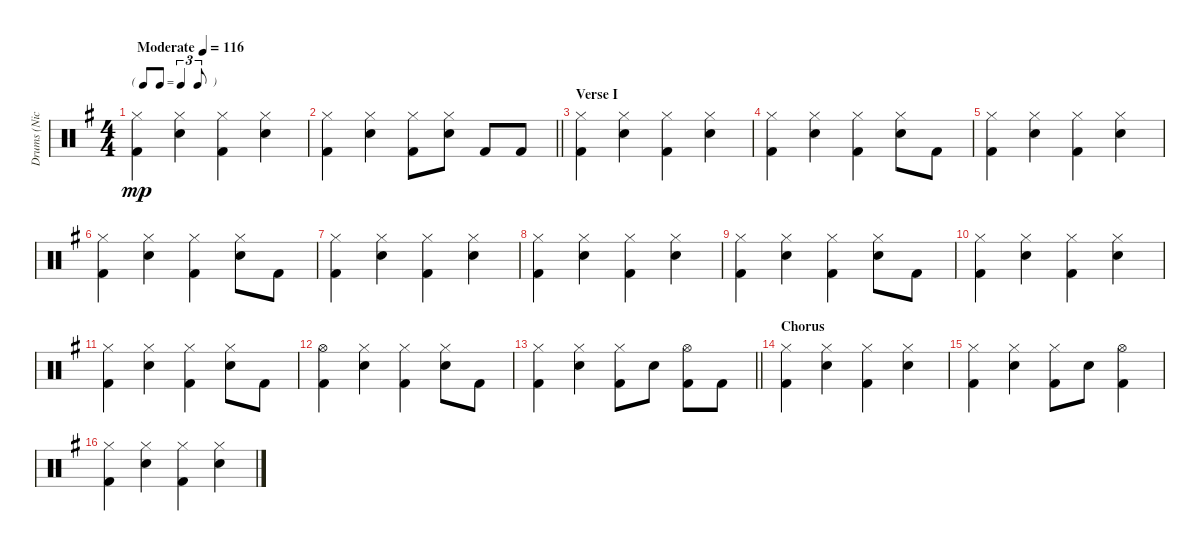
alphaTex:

\track ("Drums (Nick Mason)" "Drums (Nic") {instrument percussion}
\staff {score}
\articulation defaults
\ts (4 4)
\tf triplet8th
\tempo (116 "Moderate")
\clef neutral
\ks g
("Hi-Hat (closed)" "Kick (hit) 2").4{dy mp} ("Hi-Hat (closed)" "Snare (hit) 2").4 ("Hi-Hat (closed)" "Kick (hit) 2").4 ("Hi-Hat (closed)" "Snare (hit) 2").4 |
\barLineRight lightlight
("Hi-Hat (closed)" "Kick (hit) 2").4 ("Hi-Hat (closed)" "Snare (hit) 2").4 ("Hi-Hat (closed)" "Kick (hit) 2").8 ("Hi-Hat (closed)" "Snare (hit) 2").8 "Kick (hit) 2".8 "Kick (hit) 2".8 |
\section ("" "Verse I")
("Hi-Hat (closed)" "Kick (hit) 2").4 ("Hi-Hat (closed)" "Snare (hit) 2").4 ("Hi-Hat (closed)" "Kick (hit) 2").4 ("Hi-Hat (closed)" "Snare (hit) 2").4 |
("Hi-Hat (closed)" "Kick (hit) 2").4 ("Hi-Hat (closed)" "Snare (hit) 2").4 ("Hi-Hat (closed)" "Kick (hit) 2").4 ("Hi-Hat (closed)" "Snare (hit) 2").8 "Kick (hit) 2".8 |
("Hi-Hat (closed)" "Kick (hit) 2").4 ("Hi-Hat (closed)" "Snare (hit) 2").4 ("Hi-Hat (closed)" "Kick (hit) 2").4 ("Hi-Hat (closed)" "Snare (hit) 2").4 |
("Hi-Hat (closed)" "Kick (hit) 2").4 ("Hi-Hat (closed)" "Snare (hit) 2").4 ("Hi-Hat (closed)" "Kick (hit) 2").4 ("Hi-Hat (closed)" "Snare (hit) 2").8 "Kick (hit) 2".8 |
("Hi-Hat (closed)" "Kick (hit) 2").4 ("Hi-Hat (closed)" "Snare (hit) 2").4 ("Hi-Hat (closed)" "Kick (hit) 2").4 ("Hi-Hat (closed)" "Snare (hit) 2").4 |
("Hi-Hat (closed)" "Kick (hit) 2").4 ("Hi-Hat (closed)" "Snare (hit) 2").4 ("Hi-Hat (closed)" "Kick (hit) 2").4 ("Hi-Hat (closed)" "Snare (hit) 2").4 |
("Hi-Hat (closed)" "Kick (hit) 2").4 ("Hi-Hat (closed)" "Snare (hit) 2").4 ("Hi-Hat (closed)" "Kick (hit) 2").4 ("Hi-Hat (closed)" "Snare (hit) 2").8 "Kick (hit) 2".8 |
("Hi-Hat (closed)" "Kick (hit) 2").4 ("Hi-Hat (closed)" "Snare (hit) 2").4 ("Hi-Hat (closed)" "Kick (hit) 2").4 ("Hi-Hat (closed)" "Snare (hit) 2").4 |
("Hi-Hat (closed)" "Kick (hit) 2").4 ("Hi-Hat (closed)" "Snare (hit) 2").4 ("Hi-Hat (closed)" "Kick (hit) 2").4 ("Hi-Hat (closed)" "Snare (hit) 2").8 "Kick (hit) 2".8 |
("Hi-Hat (open)" "Kick (hit) 2").4 ("Hi-Hat (closed)" "Snare (hit) 2").4 ("Hi-Hat (closed)" "Kick (hit) 2").4 ("Hi-Hat (closed)" "Snare (hit) 2").8 "Kick (hit) 2".8 |
\barLineRight lightlight
("Hi-Hat (closed)" "Kick (hit) 2").4 ("Hi-Hat (closed)" "Snare (hit) 2").4 ("Hi-Hat (closed)" "Kick (hit) 2").8 "Snare (hit) 2".8 ("Hi-Hat (open)" "Kick (hit) 2").8 "Kick (hit) 2".8 |
\section ("" "Chorus")
("Hi-Hat (closed)" "Kick (hit) 2").4 ("Hi-Hat (closed)" "Snare (hit) 2").4 ("Hi-Hat (closed)" "Kick (hit) 2").4 ("Hi-Hat (closed)" "Snare (hit) 2").4 |
("Hi-Hat (closed)" "Kick (hit) 2").4 ("Hi-Hat (closed)" "Snare (hit) 2").4 ("Hi-Hat (closed)" "Kick (hit) 2").8 "Snare (hit) 2".8 ("Hi-Hat (open)" "Kick (hit) 2").4 |
("Hi-Hat (closed)" "Kick (hit) 2").4 ("Hi-Hat (closed)" "Snare (hit) 2").4 ("Hi-Hat (closed)" "Kick (hit) 2").4 ("Hi-Hat (closed)" "Snare (hit) 2").4
